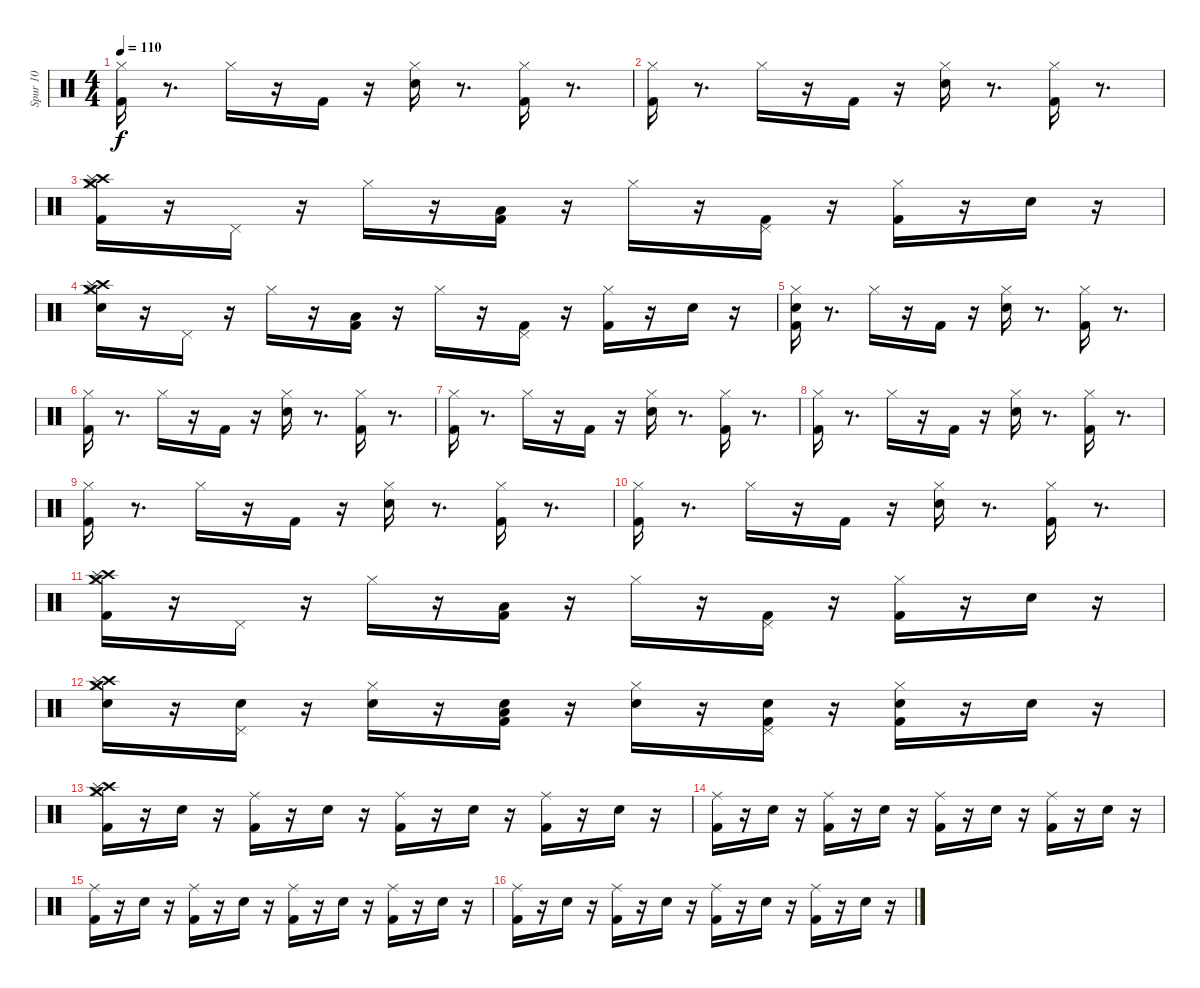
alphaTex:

\track ("Spur 10" "Spur 10") {instrument percussion}
\staff {score}
\articulation defaults
\ts (4 4)
\tempo 110
\clef neutral
\ks c
("Hi-Hat (closed)" "Kick (hit) 2").16{dy f} r.8{d} "Hi-Hat (closed)".16 r.16 "Kick (hit) 2".16 r.16 ("Hi-Hat (closed)" "Snare (hit) 2").16 r.8{d} ("Hi-Hat (closed)" "Kick (hit) 2").16 r.8{d} |
("Hi-Hat (closed)" "Kick (hit) 2").16 r.8{d} "Hi-Hat (closed)".16 r.16 "Kick (hit) 2".16 r.16 ("Hi-Hat (closed)" "Snare (hit) 2").16 r.8{d} ("Hi-Hat (closed)" "Kick (hit) 2").16 r.8{d} |
("Hi-Hat (closed)" "Kick (hit) 2" "Crash high (hit)" "Splash (hit)" "Crash medium (hit)").16 r.16 "Pedal Hi-Hat (hit)".16 r.16 "Hi-Hat (closed)".16 r.16 ("Kick (hit) 2" "Low Floor Tom (hit)").16 r.16 "Hi-Hat (closed)".16 r.16 ("Kick (hit) 2" "Pedal Hi-Hat (hit)").16 r.16 ("Kick (hit) 2" "Hi-Hat (closed)").16 r.16 "Snare (hit) 2".16 r.16 |
("Snare (hit) 2" "Hi-Hat (closed)" "Crash high (hit)" "Splash (hit)" "Crash medium (hit)").16 r.16 "Pedal Hi-Hat (hit)".16 r.16 "Hi-Hat (closed)".16 r.16 ("Kick (hit) 2" "Low Floor Tom (hit)").16 r.16 "Hi-Hat (closed)".16 r.16 ("Kick (hit) 2" "Pedal Hi-Hat (hit)").16 r.16 ("Kick (hit) 2" "Hi-Hat (closed)").16 r.16 "Snare (hit) 2".16 r.16 |
("Kick (hit) 2" "Snare (hit) 2" "Hi-Hat (closed)").16 r.8{d} "Hi-Hat (closed)".16 r.16 "Kick (hit) 2".16 r.16 ("Snare (hit) 2" "Hi-Hat (closed)").16 r.8{d} ("Kick (hit) 2" "Hi-Hat (closed)").16 r.8{d} |
("Kick (hit) 2" "Hi-Hat (closed)").16 r.8{d} "Hi-Hat (closed)".16 r.16 "Kick (hit) 2".16 r.16 ("Snare (hit) 2" "Hi-Hat (closed)").16 r.8{d} ("Kick (hit) 2" "Hi-Hat (closed)").16 r.8{d} |
("Kick (hit) 2" "Hi-Hat (closed)").16 r.8{d} "Hi-Hat (closed)".16 r.16 "Kick (hit) 2".16 r.16 ("Snare (hit) 2" "Hi-Hat (closed)").16 r.8{d} ("Kick (hit) 2" "Hi-Hat (closed)").16 r.8{d} |
("Kick (hit) 2" "Hi-Hat (closed)").16 r.8{d} "Hi-Hat (closed)".16 r.16 "Kick (hit) 2".16 r.16 ("Snare (hit) 2" "Hi-Hat (closed)").16 r.8{d} ("Kick (hit) 2" "Hi-Hat (closed)").16 r.8{d} |
("Kick (hit) 2" "Hi-Hat (closed)").16 r.8{d} "Hi-Hat (closed)".16 r.16 "Kick (hit) 2".16 r.16 ("Snare (hit) 2" "Hi-Hat (closed)").16 r.8{d} ("Kick (hit) 2" "Hi-Hat (closed)").16 r.8{d} |
("Kick (hit) 2" "Hi-Hat (closed)").16 r.8{d} "Hi-Hat (closed)".16 r.16 "Kick (hit) 2".16 r.16 ("Snare (hit) 2" "Hi-Hat (closed)").16 r.8{d} ("Kick (hit) 2" "Hi-Hat (closed)").16 r.8{d} |
("Hi-Hat (closed)" "Kick (hit) 2" "Crash high (hit)" "Splash (hit)" "Crash medium (hit)").16 r.16 "Pedal Hi-Hat (hit)".16 r.16 "Hi-Hat (closed)".16 r.16 ("Kick (hit) 2" "Low Floor Tom (hit)").16 r.16 "Hi-Hat (closed)".16 r.16 ("Kick (hit) 2" "Pedal Hi-Hat (hit)").16 r.16 ("Kick (hit) 2" "Hi-Hat (closed)").16 r.16 "Snare (hit) 2".16 r.16 |
("Snare (hit) 2" "Hi-Hat (closed)" "Crash high (hit)" "Splash (hit)" "Crash medium (hit)").16 r.16 ("Pedal Hi-Hat (hit)" "Snare (hit) 2").16 r.16 ("Hi-Hat (closed)" "Snare (hit) 2").16 r.16 ("Kick (hit) 2" "Low Floor Tom (hit)" "Snare (hit) 2").16 r.16 ("Hi-Hat (closed)" "Snare (hit) 2").16 r.16 ("Kick (hit) 2" "Pedal Hi-Hat (hit)" "Snare (hit) 2").16 r.16 ("Kick (hit) 2" "Hi-Hat (closed)" "Snare (hit) 2").16 r.16 "Snare (hit) 2".16 r.16 |
("Kick (hit) 2" "Hi-Hat (closed)" "Crash high (hit)" "Splash (hit)" "Crash medium (hit)").16 r.16 "Snare (hit) 2".16 r.16 ("Kick (hit) 2" "Ride (middle)").16 r.16 "Snare (hit) 2".16 r.16 ("Kick (hit) 2" "Ride (middle)").16 r.16 "Snare (hit) 2".16 r.16 ("Kick (hit) 2" "Ride (middle)").16 r.16 "Snare (hit) 2".16 r.16 |
("Kick (hit) 2" "Ride (middle)").16 r.16 "Snare (hit) 2".16 r.16 ("Kick (hit) 2" "Ride (middle)").16 r.16 "Snare (hit) 2".16 r.16 ("Kick (hit) 2" "Ride (middle)").16 r.16 "Snare (hit) 2".16 r.16 ("Kick (hit) 2" "Ride (middle)").16 r.16 "Snare (hit) 2".16 r.16 |
("Kick (hit) 2" "Ride (middle)").16 r.16 "Snare (hit) 2".16 r.16 ("Kick (hit) 2" "Ride (middle)").16 r.16 "Snare (hit) 2".16 r.16 ("Kick (hit) 2" "Ride (middle)").16 r.16 "Snare (hit) 2".16 r.16 ("Kick (hit) 2" "Ride (middle)").16 r.16 "Snare (hit) 2".16 r.16 |
("Kick (hit) 2" "Ride (middle)").16 r.16 "Snare (hit) 2".16 r.16 ("Kick (hit) 2" "Ride (middle)").16 r.16 "Snare (hit) 2".16 r.16 ("Kick (hit) 2" "Ride (middle)").16 r.16 "Snare (hit) 2".16 r.16 ("Kick (hit) 2" "Ride (middle)").16 r.16 "Snare (hit) 2".16 r.16
